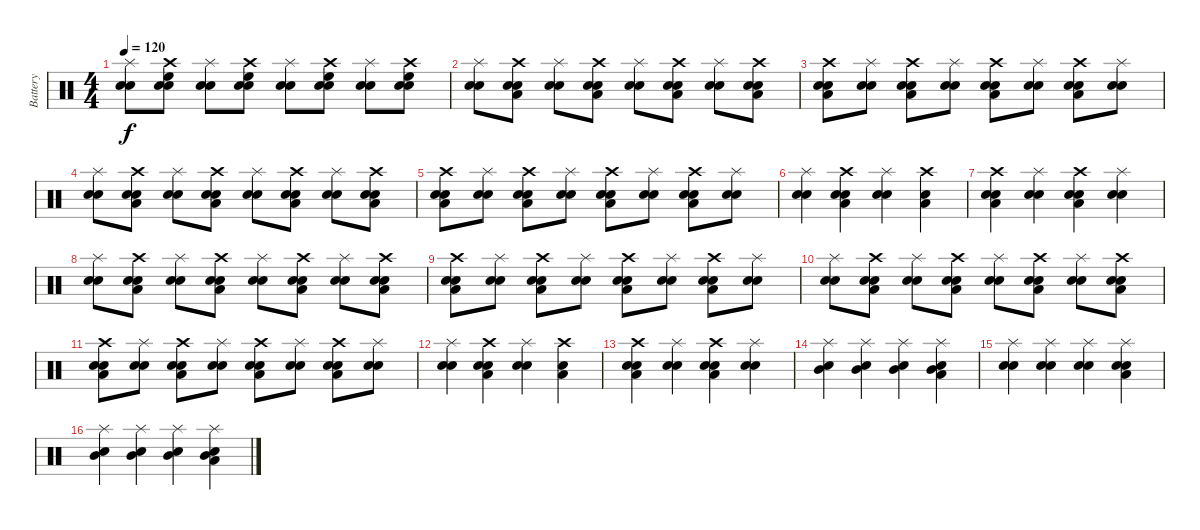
\track ("Battery" "Battery") {instrument percussion}
\staff {score}
\articulation defaults
\ts (4 4)
\tempo 120
\clef neutral
\ks c
("Snare (hit) 2" "Splash (hit)" "Snare (hit) 2").8{dy f} ("Snare (hit) 2" "Electric Snare (hit)" "High Floor Tom (hit)" "Crash high (hit)").8 ("Snare (hit) 2" "Splash (hit)" "Snare (hit) 2").8 ("Snare (hit) 2" "Electric Snare (hit)" "High Floor Tom (hit)" "Crash high (hit)").8 ("Snare (hit) 2" "Splash (hit)" "Snare (hit) 2").8 ("Snare (hit) 2" "Electric Snare (hit)" "High Floor Tom (hit)" "Crash high (hit)").8 ("Snare (hit) 2" "Splash (hit)" "Snare (hit) 2").8 ("Snare (hit) 2" "Electric Snare (hit)" "High Floor Tom (hit)" "Crash high (hit)").8 |
("Electric Snare (hit)" "Splash (hit)" "Snare (hit) 2").8 ("Electric Snare (hit)" "Snare (hit) 2" "Low Floor Tom (hit)" "Crash high (hit)").8 ("Electric Snare (hit)" "Splash (hit)" "Snare (hit) 2").8 ("Electric Snare (hit)" "Snare (hit) 2" "Low Floor Tom (hit)" "Crash high (hit)").8 ("Electric Snare (hit)" "Splash (hit)" "Snare (hit) 2").8 ("Electric Snare (hit)" "Snare (hit) 2" "Low Floor Tom (hit)" "Crash high (hit)").8 ("Electric Snare (hit)" "Splash (hit)" "Snare (hit) 2").8 ("Electric Snare (hit)" "Snare (hit) 2" "Low Floor Tom (hit)" "Crash high (hit)").8 |
("Electric Snare (hit)" "Snare (hit) 2" "Low Floor Tom (hit)" "Crash high (hit)").8 ("Electric Snare (hit)" "Splash (hit)" "Snare (hit) 2").8 ("Electric Snare (hit)" "Snare (hit) 2" "Low Floor Tom (hit)" "Crash high (hit)").8 ("Electric Snare (hit)" "Splash (hit)" "Snare (hit) 2").8 ("Electric Snare (hit)" "Snare (hit) 2" "Low Floor Tom (hit)" "Crash high (hit)").8 ("Electric Snare (hit)" "Splash (hit)" "Snare (hit) 2").8 ("Electric Snare (hit)" "Snare (hit) 2" "Low Floor Tom (hit)" "Crash high (hit)").8 ("Electric Snare (hit)" "Splash (hit)" "Snare (hit) 2").8 |
("Electric Snare (hit)" "Splash (hit)" "Snare (hit) 2").8 ("Electric Snare (hit)" "Snare (hit) 2" "Low Floor Tom (hit)" "Crash high (hit)").8 ("Electric Snare (hit)" "Splash (hit)" "Snare (hit) 2").8 ("Electric Snare (hit)" "Snare (hit) 2" "Low Floor Tom (hit)" "Crash high (hit)").8 ("Electric Snare (hit)" "Splash (hit)" "Snare (hit) 2").8 ("Electric Snare (hit)" "Snare (hit) 2" "Low Floor Tom (hit)" "Crash high (hit)").8 ("Electric Snare (hit)" "Splash (hit)" "Snare (hit) 2").8 ("Electric Snare (hit)" "Snare (hit) 2" "Low Floor Tom (hit)" "Crash high (hit)").8 |
("Electric Snare (hit)" "Snare (hit) 2" "Low Floor Tom (hit)" "Crash high (hit)").8 ("Electric Snare (hit)" "Splash (hit)" "Snare (hit) 2").8 ("Electric Snare (hit)" "Snare (hit) 2" "Low Floor Tom (hit)" "Crash high (hit)").8 ("Electric Snare (hit)" "Splash (hit)" "Snare (hit) 2").8 ("Electric Snare (hit)" "Snare (hit) 2" "Low Floor Tom (hit)" "Crash high (hit)").8 ("Electric Snare (hit)" "Splash (hit)" "Snare (hit) 2").8 ("Electric Snare (hit)" "Snare (hit) 2" "Low Floor Tom (hit)" "Crash high (hit)").8 ("Electric Snare (hit)" "Splash (hit)" "Snare (hit) 2").8 |
("Electric Snare (hit)" "Splash (hit)" "Snare (hit) 2").4 ("Electric Snare (hit)" "Snare (hit) 2" "Low Floor Tom (hit)" "Crash high (hit)").4 ("Electric Snare (hit)" "Splash (hit)" "Snare (hit) 2").4 ("Electric Snare (hit)" "Low Floor Tom (hit)" "Crash high (hit)").4 |
("Electric Snare (hit)" "Snare (hit) 2" "Low Floor Tom (hit)" "Crash high (hit)").4 ("Electric Snare (hit)" "Splash (hit)" "Snare (hit) 2").4 ("Electric Snare (hit)" "Snare (hit) 2" "Low Floor Tom (hit)" "Crash high (hit)").4 ("Electric Snare (hit)" "Splash (hit)" "Snare (hit) 2").4 |
("Electric Snare (hit)" "Splash (hit)" "Snare (hit) 2").8 ("Electric Snare (hit)" "Snare (hit) 2" "Low Floor Tom (hit)" "Crash high (hit)").8 ("Electric Snare (hit)" "Splash (hit)" "Snare (hit) 2").8 ("Electric Snare (hit)" "Snare (hit) 2" "Low Floor Tom (hit)" "Crash high (hit)").8 ("Electric Snare (hit)" "Splash (hit)" "Snare (hit) 2").8 ("Electric Snare (hit)" "Snare (hit) 2" "Low Floor Tom (hit)" "Crash high (hit)").8 ("Electric Snare (hit)" "Splash (hit)" "Snare (hit) 2").8 ("Electric Snare (hit)" "Snare (hit) 2" "Low Floor Tom (hit)" "Crash high (hit)").8 |
("Electric Snare (hit)" "Snare (hit) 2" "Low Floor Tom (hit)" "Crash high (hit)").8 ("Electric Snare (hit)" "Splash (hit)" "Snare (hit) 2").8 ("Electric Snare (hit)" "Snare (hit) 2" "Low Floor Tom (hit)" "Crash high (hit)").8 ("Electric Snare (hit)" "Splash (hit)" "Snare (hit) 2").8 ("Electric Snare (hit)" "Snare (hit) 2" "Low Floor Tom (hit)" "Crash high (hit)").8 ("Electric Snare (hit)" "Splash (hit)" "Snare (hit) 2").8 ("Electric Snare (hit)" "Snare (hit) 2" "Low Floor Tom (hit)" "Crash high (hit)").8 ("Electric Snare (hit)" "Splash (hit)" "Snare (hit) 2").8 |
("Electric Snare (hit)" "Splash (hit)" "Snare (hit) 2").8 ("Electric Snare (hit)" "Snare (hit) 2" "Low Floor Tom (hit)" "Crash high (hit)").8 ("Electric Snare (hit)" "Splash (hit)" "Snare (hit) 2").8 ("Electric Snare (hit)" "Snare (hit) 2" "Low Floor Tom (hit)" "Crash high (hit)").8 ("Electric Snare (hit)" "Splash (hit)" "Snare (hit) 2").8 ("Electric Snare (hit)" "Snare (hit) 2" "Low Floor Tom (hit)" "Crash high (hit)").8 ("Electric Snare (hit)" "Splash (hit)" "Snare (hit) 2").8 ("Electric Snare (hit)" "Snare (hit) 2" "Low Floor Tom (hit)" "Crash high (hit)").8 |
("Electric Snare (hit)" "Snare (hit) 2" "Low Floor Tom (hit)" "Crash high (hit)").8 ("Electric Snare (hit)" "Splash (hit)" "Snare (hit) 2").8 ("Electric Snare (hit)" "Snare (hit) 2" "Low Floor Tom (hit)" "Crash high (hit)").8 ("Electric Snare (hit)" "Splash (hit)" "Snare (hit) 2").8 ("Electric Snare (hit)" "Snare (hit) 2" "Low Floor Tom (hit)" "Crash high (hit)").8 ("Electric Snare (hit)" "Splash (hit)" "Snare (hit) 2").8 ("Electric Snare (hit)" "Snare (hit) 2" "Low Floor Tom (hit)" "Crash high (hit)").8 ("Electric Snare (hit)" "Splash (hit)" "Snare (hit) 2").8 |
("Electric Snare (hit)" "Splash (hit)" "Snare (hit) 2").4 ("Electric Snare (hit)" "Snare (hit) 2" "Low Floor Tom (hit)" "Crash high (hit)").4 ("Electric Snare (hit)" "Splash (hit)" "Snare (hit) 2").4 ("Electric Snare (hit)" "Low Floor Tom (hit)" "Crash high (hit)").4 |
("Electric Snare (hit)" "Snare (hit) 2" "Low Floor Tom (hit)" "Crash high (hit)").4 ("Electric Snare (hit)" "Splash (hit)" "Snare (hit) 2").4 ("Electric Snare (hit)" "Snare (hit) 2" "Low Floor Tom (hit)" "Crash high (hit)").4 ("Electric Snare (hit)" "Splash (hit)" "Snare (hit) 2").4 |
("Snare (hit) 2" "Mid Tom (hit)" "Splash (hit)").4 ("Snare (hit) 2" "Mid Tom (hit)" "Splash (hit)").4 ("Snare (hit) 2" "Mid Tom (hit)" "Splash (hit)").4 ("Snare (hit) 2" "Mid Tom (hit)" "Low Floor Tom (hit)" "Splash (hit)").4 |
("Snare (hit) 2" "Electric Snare (hit)" "Splash (hit)").4 ("Snare (hit) 2" "Electric Snare (hit)" "Splash (hit)").4 ("Snare (hit) 2" "Electric Snare (hit)" "Splash (hit)").4 ("Snare (hit) 2" "Electric Snare (hit)" "Low Floor Tom (hit)" "Splash (hit)").4 |
("Snare (hit) 2" "Mid Tom (hit)" "Splash (hit)").4 ("Snare (hit) 2" "Mid Tom (hit)" "Splash (hit)").4 ("Snare (hit) 2" "Mid Tom (hit)" "Splash (hit)").4 ("Snare (hit) 2" "Mid Tom (hit)" "Low Floor Tom (hit)" "Splash (hit)").4
